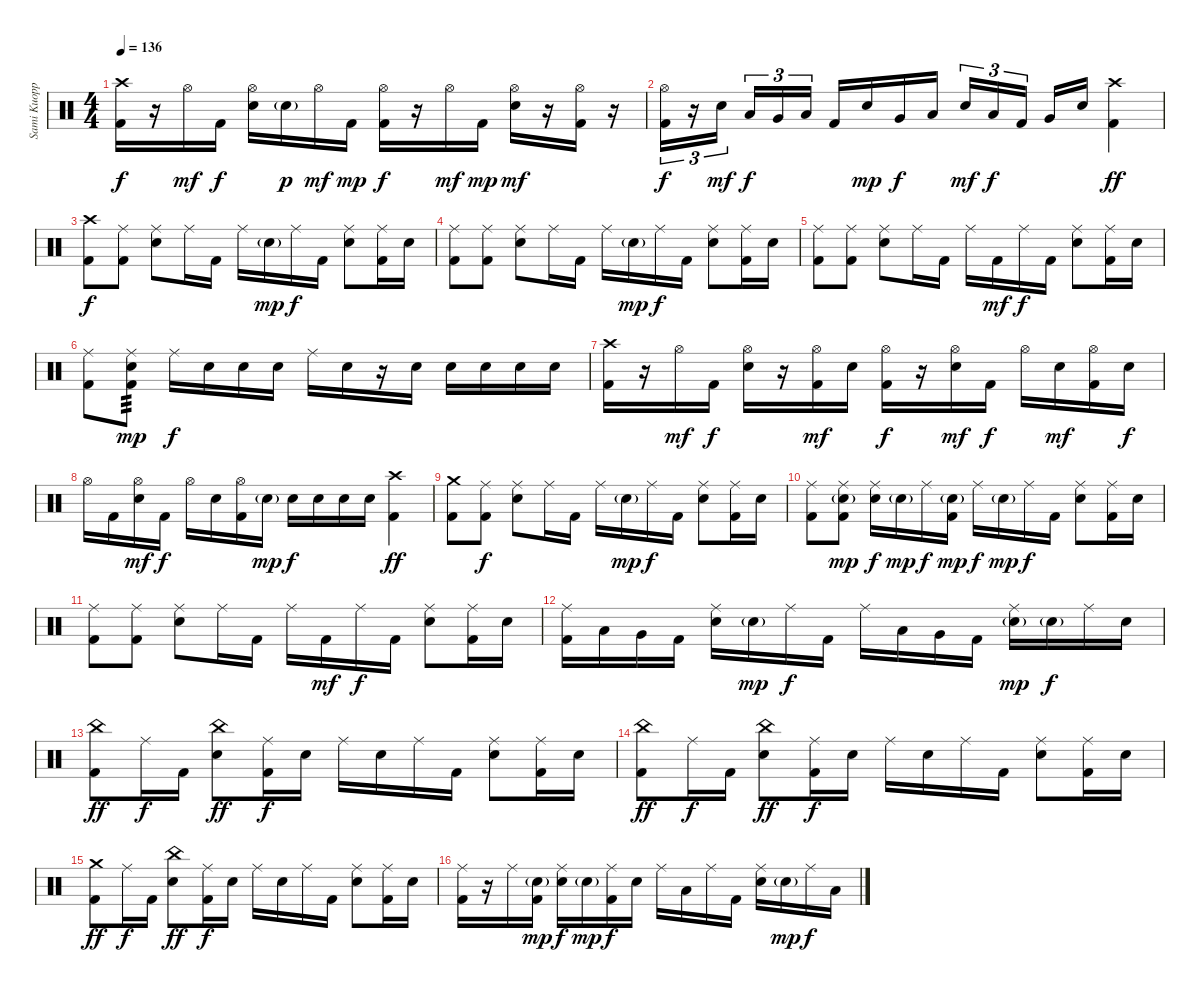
\track ("Sami Kuoppamäki - Drums" "Sami Kuopp") {instrument percussion}
\staff {score}
\articulation defaults
\ts (4 4)
\tempo 136
\clef neutral
\ks c
("Crash high (hit)" "Kick (hit) 2").16{dy f} r.16 "Hi-Hat (open)".16{dy mf} "Kick (hit) 2".16{dy f} ("Hi-Hat (open)" "Snare (hit) 2").16 "Snare (hit) 2"{g}.16{dy p} "Hi-Hat (open)".16{dy mf} "Kick (hit) 2".16{dy mp} ("Hi-Hat (open)" "Kick (hit) 2").16{dy f} r.16 "Hi-Hat (open)".16{dy mf} "Kick (hit) 2".16{dy mp} ("Hi-Hat (open)" "Snare (hit) 2").16{dy mf} r.16 ("Hi-Hat (open)" "Kick (hit) 2").16 r.16 |
("Hi-Hat (open)" "Kick (hit) 2").16{tu (3 2) dy f} r.16{tu (3 2)} "Snare (hit) 2".16{tu (3 2) dy mf} "Low Tom (hit)".16{tu (3 2) dy f} "Very Low Tom (hit)".16{tu (3 2)} "Low Floor Tom (hit)".16{tu (3 2)} "Kick (hit) 2".16 "Snare (hit) 2".16{dy mp} "Very Low Tom (hit)".16{dy f} "Low Floor Tom (hit)".16 "Snare (hit) 2".16{tu (3 2) dy mf} "Low Tom (hit)".16{tu (3 2) dy f} "Kick (hit) 2".16{tu (3 2)} "Very Low Tom (hit)".16 "Snare (hit) 2".16 ("Crash high (hit)" "Kick (hit) 2").4{dy ff} |
("Crash high (hit)" "Kick (hit) 2").8{dy f} ("Ride (middle)" "Kick (hit) 2").8 ("Ride (middle)" "Snare (hit) 2").8 "Ride (middle)".16 "Kick (hit) 2".16 "Ride (middle)".16 "Snare (hit) 2"{g}.16{dy mp} "Ride (middle)".16{dy f} "Kick (hit) 2".16 ("Ride (middle)" "Snare (hit) 2").8 ("Ride (middle)" "Kick (hit) 2").16 "Snare (hit) 2".16 |
("Ride (middle)" "Kick (hit) 2").8 ("Ride (middle)" "Kick (hit) 2").8 ("Ride (middle)" "Snare (hit) 2").8 "Ride (middle)".16 "Kick (hit) 2".16 "Ride (middle)".16 "Snare (hit) 2"{g}.16{dy mp} "Ride (middle)".16{dy f} "Kick (hit) 2".16 ("Ride (middle)" "Snare (hit) 2").8 ("Ride (middle)" "Kick (hit) 2").16 "Snare (hit) 2".16 |
("Ride (middle)" "Kick (hit) 2").8 ("Ride (middle)" "Kick (hit) 2").8 ("Ride (middle)" "Snare (hit) 2").8 "Ride (middle)".16 "Kick (hit) 2".16 "Ride (middle)".16 "Kick (hit) 2".16{dy mf} "Ride (middle)".16{dy f} "Kick (hit) 2".16 ("Ride (middle)" "Snare (hit) 2").8 ("Ride (middle)" "Kick (hit) 2").16 "Snare (hit) 2".16 |
("Ride (middle)" "Kick (hit) 2").8 ("Ride (middle)" "Snare (hit) 2" "Kick (hit) 2").8{tp 3 dy mp} "Ride (middle)".16{dy f} "Snare (hit) 2".16 "Snare (hit) 2".16 "Snare (hit) 2".16 "Ride (middle)".16 "Snare (hit) 2".16 r.16 "Snare (hit) 2".16 "Snare (hit) 2".16 "Snare (hit) 2".16 "Snare (hit) 2".16 "Snare (hit) 2".16 |
("Crash high (hit)" "Kick (hit) 2").16 r.16 "Hi-Hat (open)".16{dy mf} "Kick (hit) 2".16{dy f} ("Hi-Hat (open)" "Snare (hit) 2").16 r.16 ("Hi-Hat (open)" "Kick (hit) 2").16{dy mf} "Snare (hit) 2".16 ("Hi-Hat (open)" "Kick (hit) 2").16{dy f} r.16 ("Hi-Hat (open)" "Snare (hit) 2").16{dy mf} "Kick (hit) 2".16{dy f} "Hi-Hat (open)".16 "Snare (hit) 2".16{dy mf} ("Hi-Hat (open)" "Kick (hit) 2").16 "Snare (hit) 2".16{dy f} |
"Hi-Hat (open)".16 "Kick (hit) 2".16 ("Hi-Hat (open)" "Snare (hit) 2").16{dy mf} "Kick (hit) 2".16{dy f} "Hi-Hat (open)".16 "Snare (hit) 2".16 ("Hi-Hat (open)" "Kick (hit) 2").16 "Snare (hit) 2"{g}.16{dy mp} "Snare (hit) 2".16{dy f} "Snare (hit) 2".16 "Snare (hit) 2".16 "Snare (hit) 2".16 ("Crash high (hit)" "Kick (hit) 2").4{dy ff} |
("Crash medium (hit)" "Kick (hit) 2").8 ("Ride (middle)" "Kick (hit) 2").8{dy f} ("Ride (middle)" "Snare (hit) 2").8 "Ride (middle)".16 "Kick (hit) 2".16 "Ride (middle)".16 "Snare (hit) 2"{g}.16{dy mp} "Ride (middle)".16{dy f} "Kick (hit) 2".16 ("Ride (middle)" "Snare (hit) 2").8 ("Ride (middle)" "Kick (hit) 2").16 "Snare (hit) 2".16 |
("Ride (middle)" "Kick (hit) 2").8 ("Ride (middle)" "Snare (hit) 2"{g} "Kick (hit) 2").8{dy mp} ("Ride (middle)" "Snare (hit) 2").16{dy f} "Snare (hit) 2"{g}.16{dy mp} "Ride (middle)".16{dy f} ("Snare (hit) 2"{g} "Kick (hit) 2").16{dy mp} "Ride (middle)".16{dy f} "Snare (hit) 2"{g}.16{dy mp} "Ride (middle)".16{dy f} "Kick (hit) 2".16 ("Ride (middle)" "Snare (hit) 2").8 ("Ride (middle)" "Kick (hit) 2").16 "Snare (hit) 2".16 |
("Ride (middle)" "Kick (hit) 2").8 ("Ride (middle)" "Kick (hit) 2").8 ("Ride (middle)" "Snare (hit) 2").8 "Ride (middle)".16 "Kick (hit) 2".16 "Ride (middle)".16 "Kick (hit) 2".16{dy mf} "Ride (middle)".16{dy f} "Kick (hit) 2".16 ("Ride (middle)" "Snare (hit) 2").8 ("Ride (middle)" "Kick (hit) 2").16 "Snare (hit) 2".16 |
("Ride (middle)" "Kick (hit) 2").16 "Low Tom (hit)".16 "Very Low Tom (hit)".16 "Kick (hit) 2".16 ("Ride (middle)" "Snare (hit) 2").16 "Snare (hit) 2"{g}.16{dy mp} "Ride (middle)".16{dy f} "Kick (hit) 2".16 "Ride (middle)".16 "Low Tom (hit)".16 "Very Low Tom (hit)".16 "Kick (hit) 2".16 ("Ride (middle)" "Snare (hit) 2"{g}).16{dy mp} "Snare (hit) 2"{g}.16{dy f} "Ride (middle)".16 "Snare (hit) 2".16 |
("China (hit)" "Kick (hit) 2").8{dy ff} "Ride (middle)".16{dy f} "Kick (hit) 2".16 ("China (hit)" "Snare (hit) 2").8{dy ff} ("Ride (middle)" "Kick (hit) 2").16{dy f} "Snare (hit) 2".16 "Ride (middle)".16 "Snare (hit) 2".16 "Ride (middle)".16 "Kick (hit) 2".16 ("Ride (middle)" "Snare (hit) 2").8 ("Ride (middle)" "Kick (hit) 2").16 "Snare (hit) 2".16 |
("China (hit)" "Kick (hit) 2").8{dy ff} "Ride (middle)".16{dy f} "Kick (hit) 2".16 ("China (hit)" "Snare (hit) 2").8{dy ff} ("Ride (middle)" "Kick (hit) 2").16{dy f} "Snare (hit) 2".16 "Ride (middle)".16 "Snare (hit) 2".16 "Ride (middle)".16 "Kick (hit) 2".16 ("Ride (middle)" "Snare (hit) 2").8 ("Ride (middle)" "Kick (hit) 2").16 "Snare (hit) 2".16 |
("Crash medium (hit)" "Kick (hit) 2").8{dy ff} "Ride (middle)".16{dy f} "Kick (hit) 2".16 ("China (hit)" "Snare (hit) 2").8{dy ff} ("Ride (middle)" "Kick (hit) 2").16{dy f} "Snare (hit) 2".16 "Ride (middle)".16 "Snare (hit) 2".16 "Ride (middle)".16 "Kick (hit) 2".16 ("Ride (middle)" "Snare (hit) 2").8 ("Ride (middle)" "Kick (hit) 2").16 "Snare (hit) 2".16 |
("Ride (middle)" "Kick (hit) 2").16 r.16 "Ride (middle)".16 ("Snare (hit) 2"{g} "Kick (hit) 2").16{dy mp} ("Ride (middle)" "Snare (hit) 2").16{dy f} "Snare (hit) 2"{g}.16{dy mp} ("Ride (middle)" "Kick (hit) 2").16{dy f} "Snare (hit) 2".16 "Ride (middle)".16 "Low Tom (hit)".16 "Ride (middle)".16 "Kick (hit) 2".16 ("Ride (middle)" "Snare (hit) 2").16 "Snare (hit) 2"{g}.16{dy mp} "Ride (middle)".16{dy f} "Low Tom (hit)".16
